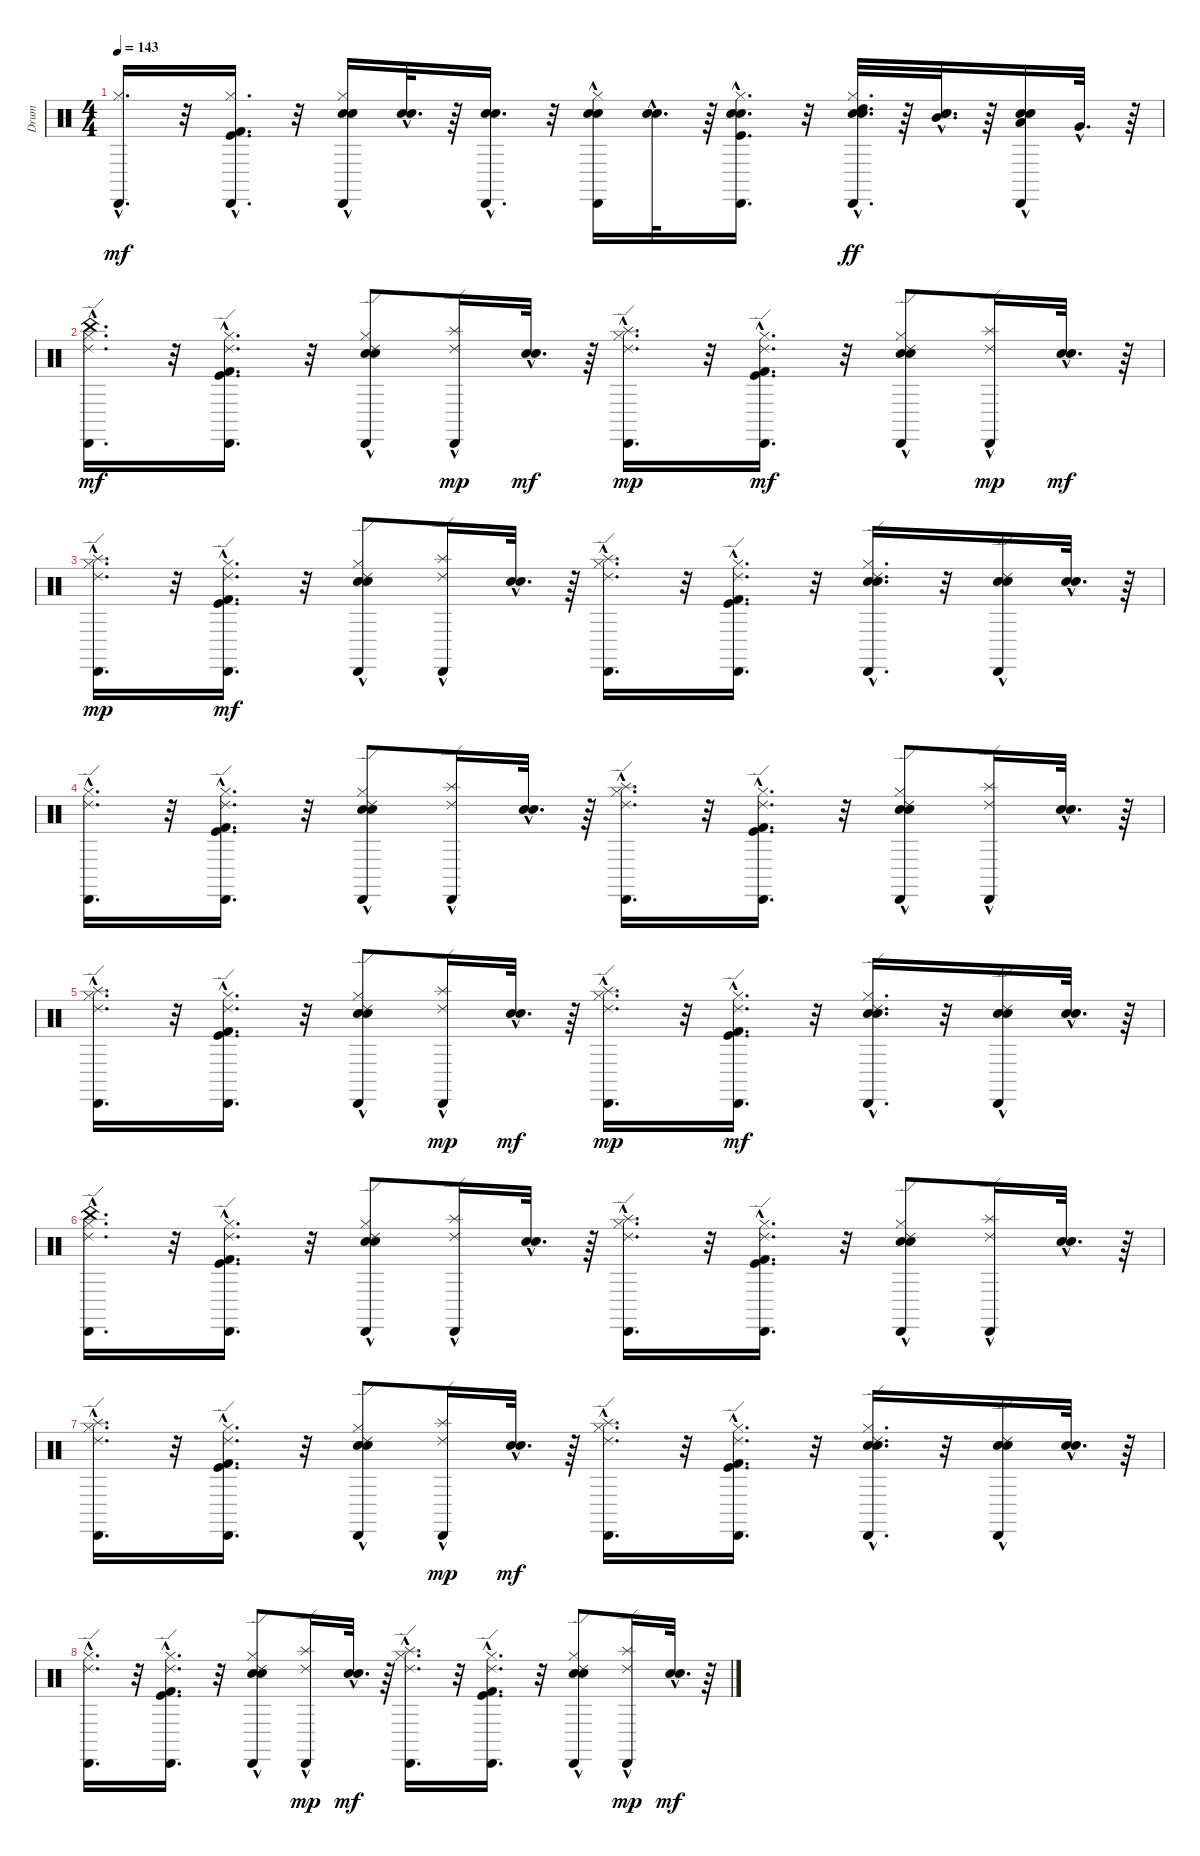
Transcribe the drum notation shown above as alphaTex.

\track ("Drum" "Drum") {instrument percussion}
\staff {score}
\articulation defaults
\ts (4 4)
\tempo 143
\clef neutral
\ks c
("Hi-Hat (closed)"{hac} "Cabasa (hit)"{hac}).16{d dy mf} r.32 ("Kick (hit) 2"{hac} "Kick (hit)"{hac} "Hi-Hat (closed)"{hac} "Cabasa (hit)"{hac}).16{d} r.32 ("Electric Snare (hit)"{hac} "Hi-Hat (closed)"{hac} "Snare (hit) 2"{hac} "Cabasa (hit)"{hac}).16 ("Electric Snare (hit)"{hac} "Snare (hit) 2"{hac}).32{d} r.64 ("Electric Snare (hit)"{hac} "Snare (hit) 2"{hac} "Cabasa (hit)"{hac}).16{d} r.32 ("Electric Snare (hit)"{hac} "Hi-Hat (closed)"{hac} "Snare (hit) 2"{hac} "Cabasa (hit)"{hac}).16 ("Electric Snare (hit)"{hac} "Snare (hit) 2"{hac}).32{d} r.64 ("Electric Snare (hit)"{hac} "Kick (hit)"{hac} "Hi-Hat (closed)"{hac} "Snare (hit) 2"{hac} "Cabasa (hit)"{hac}).16{d} r.32 ("Electric Snare (hit)"{hac} "Hi-Hat (closed)"{hac} "Snare (hit) 2"{hac} "Cabasa (hit)"{hac} "High Tom (hit)"{hac}).32{d dy ff} r.64 ("Electric Snare (hit)"{hac} "Snare (hit) 2"{hac} "Mid Tom (hit)"{hac}).32{d} r.64 ("Electric Snare (hit)"{hac} "Snare (hit) 2"{hac} "Cabasa (hit)"{hac} "Low Tom (hit)"{hac}).16 "Very Low Tom (hit)"{hac}.32{d} r.64 |
("Hi-Hat (closed)"{hac} "Cabasa (hit)"{hac} "Ride (edge) 2"{hac} "China (hit)"{hac}).16{d dy mf} r.32 ("Hi-Hat (closed)"{hac} "Kick (hit)"{hac} "Cabasa (hit)"{hac} "Kick (hit) 2"{hac} "Ride (edge) 2"{hac}).16{d} r.32 ("Hi-Hat (closed)" "Snare (hit) 2" "Cabasa (hit)"{hac} "Electric Snare (hit)" "Ride (edge) 2"{hac}).8 ("Cabasa (hit)"{hac} "Ride (edge) 2"{hac} "Splash (hit)"{hac}).16{dy mp} ("Snare (hit) 2"{hac} "Electric Snare (hit)"{hac}).32{d dy mf} r.64 ("Hi-Hat (closed)"{hac} "Cabasa (hit)"{hac} "Ride (edge) 2"{hac} "Splash (hit)"{hac}).16{d dy mp} r.32 ("Hi-Hat (closed)"{hac} "Kick (hit)"{hac} "Cabasa (hit)"{hac} "Kick (hit) 2"{hac} "Ride (edge) 2"{hac}).16{d dy mf} r.32 ("Hi-Hat (closed)" "Snare (hit) 2" "Cabasa (hit)"{hac} "Electric Snare (hit)" "Ride (edge) 2"{hac}).8 ("Cabasa (hit)"{hac} "Ride (edge) 2"{hac} "Splash (hit)"{hac}).16{dy mp} ("Snare (hit) 2"{hac} "Electric Snare (hit)"{hac}).32{d dy mf} r.64 |
("Hi-Hat (closed)"{hac} "Ride (edge) 2"{hac} "Cabasa (hit)"{hac} "Splash (hit)"{hac}).16{d dy mp} r.32 ("Kick (hit)"{hac} "Hi-Hat (closed)"{hac} "Kick (hit) 2"{hac} "Ride (edge) 2"{hac} "Cabasa (hit)"{hac}).16{d dy mf} r.32 ("Snare (hit) 2" "Hi-Hat (closed)" "Electric Snare (hit)" "Ride (edge) 2"{hac} "Cabasa (hit)"{hac}).8 ("Splash (hit)"{hac} "Ride (edge) 2"{hac} "Cabasa (hit)"{hac}).16 ("Snare (hit) 2"{hac} "Electric Snare (hit)"{hac}).32{d} r.64 ("Hi-Hat (closed)"{hac} "Splash (hit)"{hac} "Ride (edge) 2"{hac} "Cabasa (hit)"{hac}).16{d} r.32 ("Kick (hit)"{hac} "Hi-Hat (closed)"{hac} "Kick (hit) 2"{hac} "Ride (edge) 2"{hac} "Cabasa (hit)"{hac}).16{d} r.32 ("Snare (hit) 2"{hac} "Hi-Hat (closed)"{hac} "Electric Snare (hit)"{hac} "Ride (edge) 2"{hac} "Cabasa (hit)"{hac}).16{d} r.32 ("Snare (hit) 2"{hac} "Electric Snare (hit)"{hac} "Ride (edge) 2"{hac} "Cabasa (hit)"{hac}).16 ("Snare (hit) 2"{hac} "Electric Snare (hit)"{hac}).32{d} r.64 |
("Hi-Hat (closed)"{hac} "Ride (edge) 2"{hac} "Cabasa (hit)"{hac}).16{d} r.32 ("Hi-Hat (closed)"{hac} "Kick (hit)"{hac} "Kick (hit) 2"{hac} "Ride (edge) 2"{hac} "Cabasa (hit)"{hac}).16{d} r.32 ("Hi-Hat (closed)" "Snare (hit) 2" "Electric Snare (hit)" "Ride (edge) 2"{hac} "Cabasa (hit)"{hac}).8 ("Splash (hit)"{hac} "Ride (edge) 2"{hac} "Cabasa (hit)"{hac}).16 ("Snare (hit) 2"{hac} "Electric Snare (hit)"{hac}).32{d} r.64 ("Hi-Hat (closed)"{hac} "Splash (hit)"{hac} "Ride (edge) 2"{hac} "Cabasa (hit)"{hac}).16{d} r.32 ("Hi-Hat (closed)"{hac} "Kick (hit)"{hac} "Kick (hit) 2"{hac} "Ride (edge) 2"{hac} "Cabasa (hit)"{hac}).16{d} r.32 ("Hi-Hat (closed)" "Snare (hit) 2" "Electric Snare (hit)" "Ride (edge) 2"{hac} "Cabasa (hit)"{hac}).8 ("Splash (hit)"{hac} "Ride (edge) 2"{hac} "Cabasa (hit)"{hac}).16 ("Snare (hit) 2"{hac} "Electric Snare (hit)"{hac}).32{d} r.64 |
("Hi-Hat (closed)"{hac} "Splash (hit)"{hac} "Cabasa (hit)"{hac} "Ride (edge) 2"{hac}).16{d} r.32 ("Hi-Hat (closed)"{hac} "Kick (hit)"{hac} "Kick (hit) 2"{hac} "Cabasa (hit)"{hac} "Ride (edge) 2"{hac}).16{d} r.32 ("Hi-Hat (closed)" "Snare (hit) 2" "Electric Snare (hit)" "Cabasa (hit)"{hac} "Ride (edge) 2"{hac}).8 ("Cabasa (hit)"{hac} "Ride (edge) 2"{hac} "Splash (hit)"{hac}).16{dy mp} ("Snare (hit) 2"{hac} "Electric Snare (hit)"{hac}).32{d dy mf} r.64 ("Hi-Hat (closed)"{hac} "Cabasa (hit)"{hac} "Ride (edge) 2"{hac} "Splash (hit)"{hac}).16{d dy mp} r.32 ("Hi-Hat (closed)"{hac} "Kick (hit)"{hac} "Kick (hit) 2"{hac} "Cabasa (hit)"{hac} "Ride (edge) 2"{hac}).16{d dy mf} r.32 ("Hi-Hat (closed)"{hac} "Snare (hit) 2"{hac} "Electric Snare (hit)"{hac} "Cabasa (hit)"{hac} "Ride (edge) 2"{hac}).16{d} r.32 ("Snare (hit) 2"{hac} "Electric Snare (hit)"{hac} "Cabasa (hit)"{hac} "Ride (edge) 2"{hac}).16 ("Snare (hit) 2"{hac} "Electric Snare (hit)"{hac}).32{d} r.64 |
("China (hit)"{hac} "Ride (edge) 2"{hac} "Cabasa (hit)"{hac} "Hi-Hat (closed)"{hac}).16{d} r.32 ("Ride (edge) 2"{hac} "Kick (hit) 2"{hac} "Cabasa (hit)"{hac} "Kick (hit)"{hac} "Hi-Hat (closed)"{hac}).16{d} r.32 ("Ride (edge) 2"{hac} "Electric Snare (hit)" "Cabasa (hit)"{hac} "Snare (hit) 2" "Hi-Hat (closed)").8 ("Splash (hit)"{hac} "Ride (edge) 2"{hac} "Cabasa (hit)"{hac}).16 ("Electric Snare (hit)"{hac} "Snare (hit) 2"{hac}).32{d} r.64 ("Splash (hit)"{hac} "Ride (edge) 2"{hac} "Cabasa (hit)"{hac} "Hi-Hat (closed)"{hac}).16{d} r.32 ("Ride (edge) 2"{hac} "Kick (hit) 2"{hac} "Cabasa (hit)"{hac} "Kick (hit)"{hac} "Hi-Hat (closed)"{hac}).16{d} r.32 ("Ride (edge) 2"{hac} "Electric Snare (hit)" "Cabasa (hit)"{hac} "Snare (hit) 2" "Hi-Hat (closed)").8 ("Splash (hit)"{hac} "Ride (edge) 2"{hac} "Cabasa (hit)"{hac}).16 ("Electric Snare (hit)"{hac} "Snare (hit) 2"{hac}).32{d} r.64 |
("Splash (hit)"{hac} "Cabasa (hit)"{hac} "Ride (edge) 2"{hac} "Hi-Hat (closed)"{hac}).16{d} r.32 ("Cabasa (hit)"{hac} "Ride (edge) 2"{hac} "Kick (hit) 2"{hac} "Hi-Hat (closed)"{hac} "Kick (hit)"{hac}).16{d} r.32 ("Cabasa (hit)"{hac} "Ride (edge) 2"{hac} "Electric Snare (hit)" "Hi-Hat (closed)" "Snare (hit) 2").8 ("Cabasa (hit)"{hac} "Ride (edge) 2"{hac} "Splash (hit)"{hac}).16{dy mp} ("Electric Snare (hit)"{hac} "Snare (hit) 2"{hac}).32{d dy mf} r.64 ("Cabasa (hit)"{hac} "Ride (edge) 2"{hac} "Splash (hit)"{hac} "Hi-Hat (closed)"{hac}).16{d} r.32 ("Cabasa (hit)"{hac} "Ride (edge) 2"{hac} "Kick (hit) 2"{hac} "Hi-Hat (closed)"{hac} "Kick (hit)"{hac}).16{d} r.32 ("Cabasa (hit)"{hac} "Ride (edge) 2"{hac} "Electric Snare (hit)"{hac} "Hi-Hat (closed)"{hac} "Snare (hit) 2"{hac}).16{d} r.32 ("Cabasa (hit)"{hac} "Ride (edge) 2"{hac} "Electric Snare (hit)"{hac} "Snare (hit) 2"{hac}).16 ("Electric Snare (hit)"{hac} "Snare (hit) 2"{hac}).32{d} r.64 |
("Cabasa (hit)"{hac} "Ride (edge) 2"{hac} "Hi-Hat (closed)"{hac}).16{d} r.32 ("Cabasa (hit)"{hac} "Ride (edge) 2"{hac} "Kick (hit) 2"{hac} "Kick (hit)"{hac} "Hi-Hat (closed)"{hac}).16{d} r.32 ("Cabasa (hit)"{hac} "Ride (edge) 2"{hac} "Electric Snare (hit)" "Snare (hit) 2" "Hi-Hat (closed)").8 ("Cabasa (hit)"{hac} "Ride (edge) 2"{hac} "Splash (hit)"{hac}).16{dy mp} ("Electric Snare (hit)"{hac} "Snare (hit) 2"{hac}).32{d dy mf} r.64 ("Cabasa (hit)"{hac} "Ride (edge) 2"{hac} "Splash (hit)"{hac} "Hi-Hat (closed)"{hac}).16{d} r.32 ("Cabasa (hit)"{hac} "Ride (edge) 2"{hac} "Kick (hit) 2"{hac} "Kick (hit)"{hac} "Hi-Hat (closed)"{hac}).16{d} r.32 ("Cabasa (hit)"{hac} "Ride (edge) 2"{hac} "Electric Snare (hit)" "Snare (hit) 2" "Hi-Hat (closed)").8 ("Cabasa (hit)"{hac} "Ride (edge) 2"{hac} "Splash (hit)"{hac}).16{dy mp} ("Electric Snare (hit)"{hac} "Snare (hit) 2"{hac}).32{d dy mf} r.64
